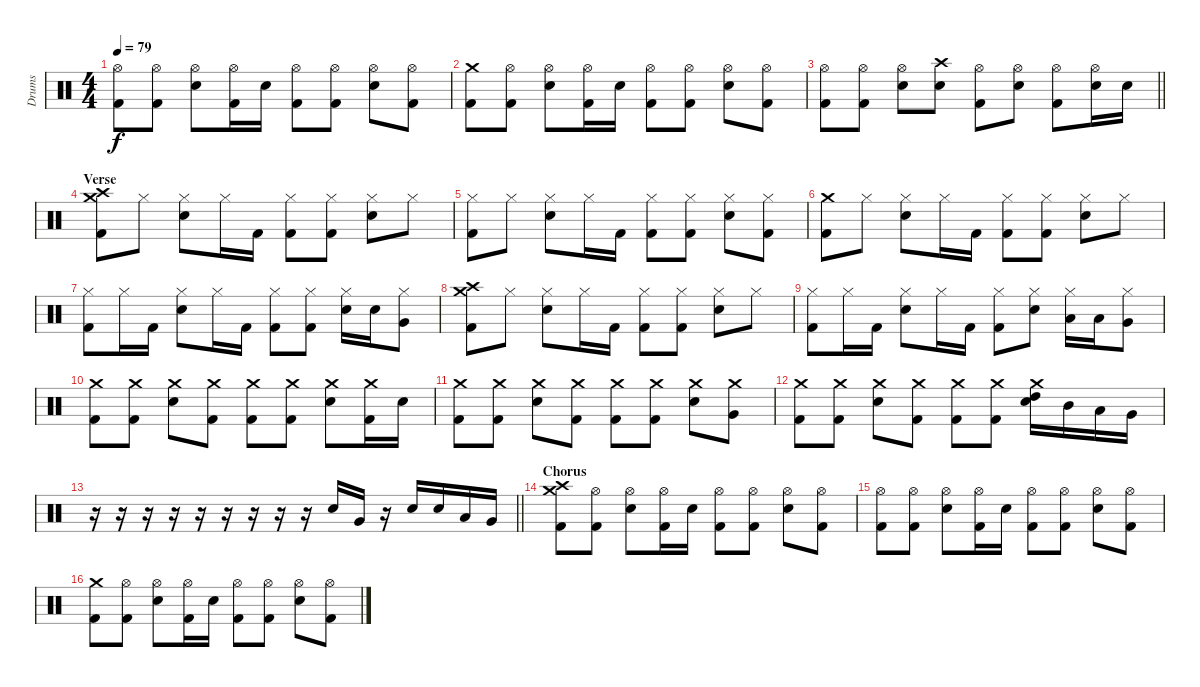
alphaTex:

\track ("Drums" "Drums") {instrument percussion}
\staff {score}
\articulation defaults
\ts (4 4)
\tempo 79
\clef neutral
\ks c
("Hi-Hat (open)" "Kick (hit) 2").8{dy f} ("Hi-Hat (open)" "Kick (hit) 2").8 ("Hi-Hat (open)" "Electric Snare (hit)").8 ("Hi-Hat (open)" "Kick (hit) 2").16 "Electric Snare (hit)".16 ("Hi-Hat (open)" "Kick (hit) 2").8 ("Hi-Hat (open)" "Kick (hit) 2").8 ("Hi-Hat (open)" "Electric Snare (hit)").8 ("Hi-Hat (open)" "Kick (hit) 2").8 |
("Crash medium (hit)" "Kick (hit) 2").8 ("Hi-Hat (open)" "Kick (hit) 2").8 ("Hi-Hat (open)" "Electric Snare (hit)").8 ("Hi-Hat (open)" "Kick (hit) 2").16 "Electric Snare (hit)".16 ("Hi-Hat (open)" "Kick (hit) 2").8 ("Hi-Hat (open)" "Kick (hit) 2").8 ("Hi-Hat (open)" "Electric Snare (hit)").8 ("Hi-Hat (open)" "Kick (hit) 2").8 |
\barLineRight lightlight
("Hi-Hat (open)" "Kick (hit) 2").8 ("Hi-Hat (open)" "Kick (hit) 2").8 ("Hi-Hat (open)" "Electric Snare (hit)").8 ("Crash high (hit)" "Electric Snare (hit)").8 ("Hi-Hat (open)" "Kick (hit) 2").8 ("Hi-Hat (open)" "Electric Snare (hit)").8 ("Hi-Hat (open)" "Kick (hit) 2").8 ("Hi-Hat (open)" "Electric Snare (hit)").16 "Electric Snare (hit)".16 |
\section ("" "Verse")
("Crash high (hit)" "Crash medium (hit)" "Kick (hit) 2").8 "Hi-Hat (closed)".8 ("Hi-Hat (closed)" "Electric Snare (hit)").8 "Hi-Hat (closed)".16 "Kick (hit) 2".16 ("Hi-Hat (closed)" "Kick (hit) 2").8 ("Hi-Hat (closed)" "Kick (hit) 2").8 ("Hi-Hat (closed)" "Electric Snare (hit)").8 "Hi-Hat (closed)".8 |
("Hi-Hat (closed)" "Kick (hit) 2").8 "Hi-Hat (closed)".8 ("Hi-Hat (closed)" "Electric Snare (hit)").8 "Hi-Hat (closed)".16 "Kick (hit) 2".16 ("Hi-Hat (closed)" "Kick (hit) 2").8 ("Hi-Hat (closed)" "Kick (hit) 2").8 ("Hi-Hat (closed)" "Electric Snare (hit)").8 ("Hi-Hat (closed)" "Kick (hit) 2").8 |
("Crash medium (hit)" "Kick (hit) 2").8 "Hi-Hat (closed)".8 ("Hi-Hat (closed)" "Electric Snare (hit)").8 "Hi-Hat (closed)".16 "Kick (hit) 2".16 ("Hi-Hat (closed)" "Kick (hit) 2").8 ("Hi-Hat (closed)" "Kick (hit) 2").8 ("Hi-Hat (closed)" "Electric Snare (hit)").8 "Hi-Hat (closed)".8 |
("Hi-Hat (closed)" "Kick (hit) 2").8 "Hi-Hat (closed)".16 "Kick (hit) 2".16 ("Hi-Hat (closed)" "Electric Snare (hit)").8 "Hi-Hat (closed)".16 "Kick (hit) 2".16 ("Hi-Hat (closed)" "Kick (hit) 2").8 ("Hi-Hat (closed)" "Kick (hit) 2").8 ("Hi-Hat (closed)" "Electric Snare (hit)").16 "Electric Snare (hit)".16 ("Hi-Hat (closed)" "Very Low Tom (hit)").8 |
("Crash high (hit)" "Crash medium (hit)" "Kick (hit) 2").8 "Hi-Hat (closed)".8 ("Hi-Hat (closed)" "Electric Snare (hit)").8 "Hi-Hat (closed)".16 "Kick (hit) 2".16 ("Hi-Hat (closed)" "Kick (hit) 2").8 ("Hi-Hat (closed)" "Kick (hit) 2").8 ("Hi-Hat (closed)" "Electric Snare (hit)").8 "Hi-Hat (closed)".8 |
("Hi-Hat (closed)" "Kick (hit) 2").8 "Hi-Hat (closed)".16 "Kick (hit) 2".16 ("Hi-Hat (closed)" "Electric Snare (hit)").8 "Hi-Hat (closed)".16 "Kick (hit) 2".16 ("Hi-Hat (closed)" "Kick (hit) 2").8 ("Hi-Hat (closed)" "Electric Snare (hit)").8 ("Hi-Hat (closed)" "Low Tom (hit)").16 "Low Tom (hit)".16 ("Hi-Hat (closed)" "Very Low Tom (hit)").8 |
("Crash medium (hit)" "Kick (hit) 2").8 ("Crash medium (hit)" "Kick (hit) 2").8 ("Crash medium (hit)" "Electric Snare (hit)").8 ("Crash medium (hit)" "Kick (hit) 2").8 ("Crash medium (hit)" "Kick (hit) 2").8 ("Crash medium (hit)" "Kick (hit) 2").8 ("Crash medium (hit)" "Electric Snare (hit)").8 ("Crash medium (hit)" "Kick (hit) 2").16 "Electric Snare (hit)".16 |
("Crash medium (hit)" "Kick (hit) 2").8 ("Crash medium (hit)" "Kick (hit) 2").8 ("Crash medium (hit)" "Electric Snare (hit)").8 ("Crash medium (hit)" "Kick (hit) 2").8 ("Crash medium (hit)" "Kick (hit) 2").8 ("Crash medium (hit)" "Kick (hit) 2").8 ("Crash medium (hit)" "Electric Snare (hit)").8 ("Crash medium (hit)" "Very Low Tom (hit)").8 |
("Crash medium (hit)" "Kick (hit) 2").8 ("Crash medium (hit)" "Kick (hit) 2").8 ("Crash medium (hit)" "Electric Snare (hit)").8 ("Crash medium (hit)" "Kick (hit) 2").8 ("Crash medium (hit)" "Kick (hit) 2").8 ("Crash medium (hit)" "Kick (hit) 2").8 ("Crash medium (hit)" "High Tom (hit)" "Electric Snare (hit)").16 "Mid Tom (hit)".16 "Low Tom (hit)".16 "Very Low Tom (hit)".16 |
\barLineRight lightlight
r.16 r.16 r.16 r.16 r.16 r.16 r.16 r.16 r.16 "Electric Snare (hit)".16 "Very Low Tom (hit)".16 r.16 "Electric Snare (hit)".16 "Electric Snare (hit)".16 "Low Tom (hit)".16 "Very Low Tom (hit)".16 |
\section ("" "Chorus")
("Crash high (hit)" "Crash medium (hit)" "Kick (hit) 2").8 ("Hi-Hat (open)" "Kick (hit) 2").8 ("Hi-Hat (open)" "Electric Snare (hit)").8 ("Hi-Hat (open)" "Kick (hit) 2").16 "Electric Snare (hit)".16 ("Hi-Hat (open)" "Kick (hit) 2").8 ("Hi-Hat (open)" "Kick (hit) 2").8 ("Hi-Hat (open)" "Electric Snare (hit)").8 ("Hi-Hat (open)" "Kick (hit) 2").8 |
("Hi-Hat (open)" "Kick (hit) 2").8 ("Hi-Hat (open)" "Kick (hit) 2").8 ("Hi-Hat (open)" "Electric Snare (hit)").8 ("Hi-Hat (open)" "Kick (hit) 2").16 "Electric Snare (hit)".16 ("Hi-Hat (open)" "Kick (hit) 2").8 ("Hi-Hat (open)" "Kick (hit) 2").8 ("Hi-Hat (open)" "Electric Snare (hit)").8 ("Hi-Hat (open)" "Kick (hit) 2").8 |
("Crash medium (hit)" "Kick (hit) 2").8 ("Hi-Hat (open)" "Kick (hit) 2").8 ("Hi-Hat (open)" "Electric Snare (hit)").8 ("Hi-Hat (open)" "Kick (hit) 2").16 "Electric Snare (hit)".16 ("Hi-Hat (open)" "Kick (hit) 2").8 ("Hi-Hat (open)" "Kick (hit) 2").8 ("Hi-Hat (open)" "Electric Snare (hit)").8 ("Hi-Hat (open)" "Kick (hit) 2").8
